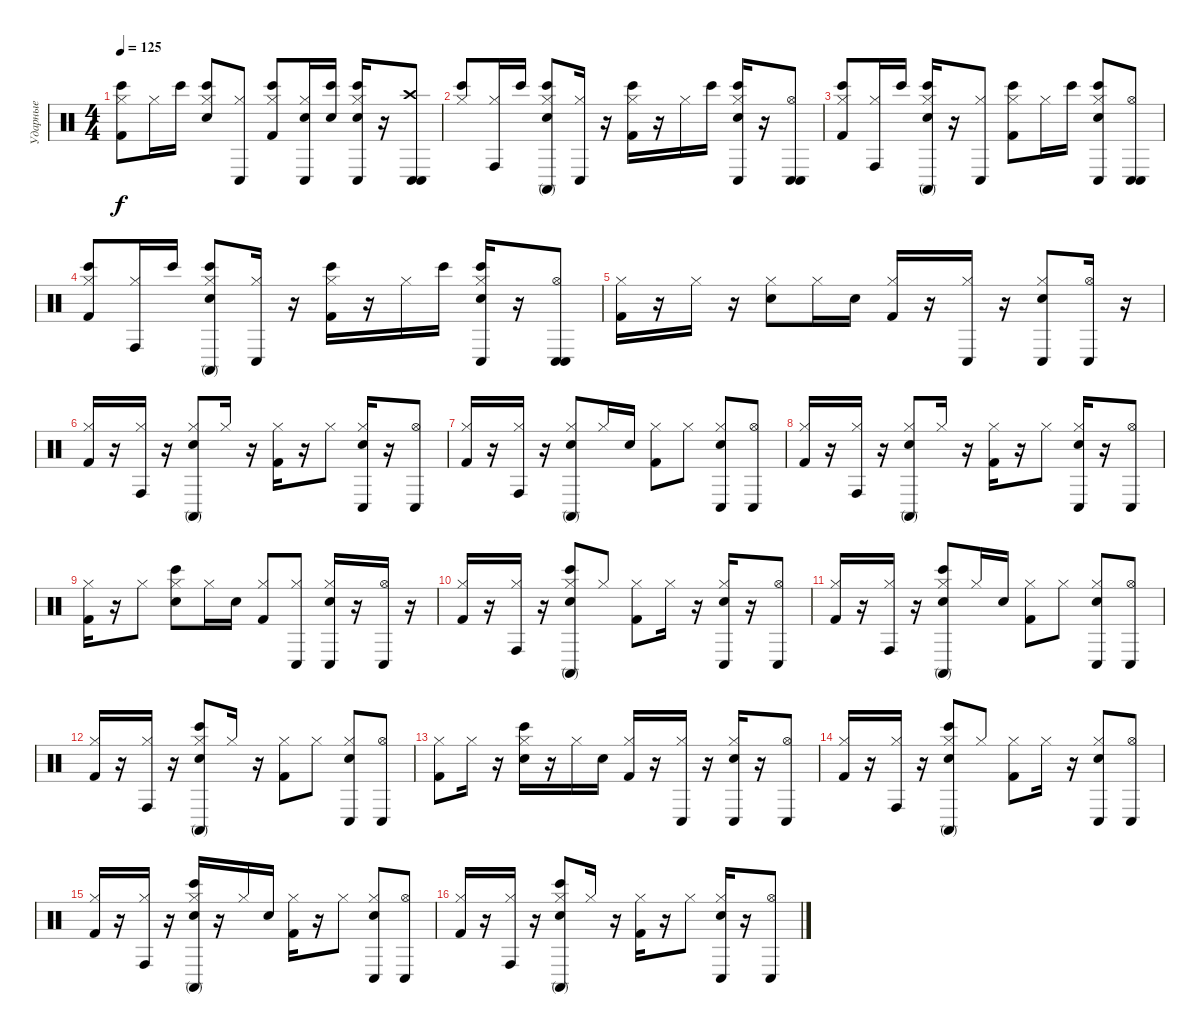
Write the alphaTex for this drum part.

\track ("Ударные" "Ударные") {instrument percussion}
\staff {score}
\articulation defaults
\ts (4 4)
\tempo 125
\clef neutral
\ks c
("Hi-Hat (closed)" "Bongo High (hit)" "Kick (hit) 2").8{dy f} "Hi-Hat (closed)".16 "Bongo High (hit)".16 ("Hi-Hat (closed)" "Bongo High (hit)" "Electric Snare (hit)").8 ("Hi-Hat (closed)" "Conga low (hit)").8 ("Hi-Hat (closed)" "Bongo High (hit)" "Kick (hit) 2").8 ("Hi-Hat (closed)" "Conga low (hit)" "Electric Snare (hit)").16 ("Bongo High (hit)" "Electric Snare (hit)").16 ("Hi-Hat (closed)" "Bongo High (hit)" "Conga low (hit)" "Electric Snare (hit)").16 r.16 ("Crash high (hit)" "Conga low (hit)" "Conga low (hit)").8 |
("Hi-Hat (closed)" "Bongo High (hit)").8 ("Hi-Hat (closed)" "Conga high (hit)").16 "Bongo High (hit)".16 ("Hi-Hat (closed)" "Bongo High (hit)" "Conga high (mute)" "Electric Snare (hit)").8 ("Hi-Hat (closed)" "Conga low (hit)").16 r.16 ("Hi-Hat (closed)" "Bongo High (hit)" "Kick (hit) 2").16 r.16 "Hi-Hat (closed)".16 "Bongo High (hit)".16 ("Hi-Hat (closed)" "Bongo High (hit)" "Conga low (hit)" "Electric Snare (hit)").16 r.16 ("Hi-Hat (open)" "Conga low (hit)" "Conga low (hit)").8 |
("Hi-Hat (closed)" "Bongo High (hit)" "Kick (hit) 2").8 ("Hi-Hat (closed)" "Conga high (hit)").16 "Bongo High (hit)".16 ("Hi-Hat (closed)" "Bongo High (hit)" "Conga high (mute)" "Electric Snare (hit)").16 r.16 ("Hi-Hat (closed)" "Conga low (hit)").8 ("Hi-Hat (closed)" "Bongo High (hit)" "Kick (hit) 2").8 "Hi-Hat (closed)".16 "Bongo High (hit)".16 ("Hi-Hat (closed)" "Bongo High (hit)" "Conga low (hit)" "Electric Snare (hit)").8 ("Hi-Hat (open)" "Conga low (hit)" "Conga low (hit)").8 |
("Hi-Hat (closed)" "Bongo High (hit)" "Kick (hit) 2").8 ("Hi-Hat (closed)" "Conga high (hit)").16 "Bongo High (hit)".16 ("Hi-Hat (closed)" "Bongo High (hit)" "Conga high (mute)" "Electric Snare (hit)").8 ("Hi-Hat (closed)" "Conga low (hit)").16 r.16 ("Hi-Hat (closed)" "Bongo High (hit)" "Kick (hit) 2").16 r.16 "Hi-Hat (closed)".16 "Bongo High (hit)".16 ("Hi-Hat (closed)" "Bongo High (hit)" "Conga low (hit)" "Electric Snare (hit)").16 r.16 ("Hi-Hat (open)" "Conga low (hit)" "Conga low (hit)").8 |
("Hi-Hat (closed)" "Kick (hit) 2").16 r.16 "Hi-Hat (closed)".16 r.16 ("Hi-Hat (closed)" "Electric Snare (hit)").8 "Hi-Hat (closed)".16 "Electric Snare (hit)".16 ("Hi-Hat (closed)" "Kick (hit) 2").16 r.16 ("Hi-Hat (closed)" "Conga low (hit)").16 r.16 ("Hi-Hat (closed)" "Conga low (hit)" "Electric Snare (hit)").8 ("Hi-Hat (open)" "Conga low (hit)").16 r.16 |
("Hi-Hat (closed)" "Kick (hit) 2").16 r.16 ("Hi-Hat (closed)" "Conga high (hit)").16 r.16 ("Hi-Hat (closed)" "Conga high (mute)" "Electric Snare (hit)").8 "Hi-Hat (closed)".16 r.16 ("Hi-Hat (closed)" "Kick (hit) 2").16 r.16 "Hi-Hat (closed)".8 ("Hi-Hat (closed)" "Conga low (hit)" "Electric Snare (hit)").16 r.16 ("Hi-Hat (open)" "Conga low (hit)").8 |
("Hi-Hat (closed)" "Kick (hit) 2").16 r.16 ("Hi-Hat (closed)" "Conga high (hit)").16 r.16 ("Hi-Hat (closed)" "Conga high (mute)" "Electric Snare (hit)").8 "Hi-Hat (closed)".16 "Electric Snare (hit)".16 ("Hi-Hat (closed)" "Kick (hit) 2").8 "Hi-Hat (closed)".8 ("Hi-Hat (closed)" "Conga low (hit)" "Electric Snare (hit)").8 ("Hi-Hat (open)" "Conga low (hit)").8 |
("Hi-Hat (closed)" "Kick (hit) 2").16 r.16 ("Hi-Hat (closed)" "Conga high (hit)").16 r.16 ("Hi-Hat (closed)" "Conga high (mute)" "Electric Snare (hit)").8 "Hi-Hat (closed)".16 r.16 ("Hi-Hat (closed)" "Kick (hit) 2").16 r.16 "Hi-Hat (closed)".8 ("Hi-Hat (closed)" "Conga low (hit)" "Electric Snare (hit)").16 r.16 ("Hi-Hat (open)" "Conga low (hit)").8 |
("Hi-Hat (closed)" "Kick (hit) 2").16 r.16 "Hi-Hat (closed)".8 ("Hi-Hat (closed)" "Bongo High (hit)" "Electric Snare (hit)").8 "Hi-Hat (closed)".16 "Electric Snare (hit)".16 ("Hi-Hat (closed)" "Kick (hit) 2").8 ("Hi-Hat (closed)" "Conga low (hit)").8 ("Hi-Hat (closed)" "Conga low (hit)" "Electric Snare (hit)").16 r.16 ("Hi-Hat (open)" "Conga low (hit)").16 r.16 |
("Hi-Hat (closed)" "Kick (hit) 2").16 r.16 ("Hi-Hat (closed)" "Conga high (hit)").16 r.16 ("Hi-Hat (closed)" "Bongo High (hit)" "Conga high (mute)" "Electric Snare (hit)").8 "Hi-Hat (closed)".8 ("Hi-Hat (closed)" "Kick (hit) 2").8 "Hi-Hat (closed)".16 r.16 ("Hi-Hat (closed)" "Conga low (hit)" "Electric Snare (hit)").16 r.16 ("Hi-Hat (open)" "Conga low (hit)").8 |
("Hi-Hat (closed)" "Kick (hit) 2").16 r.16 ("Hi-Hat (closed)" "Conga high (hit)").16 r.16 ("Hi-Hat (closed)" "Bongo High (hit)" "Conga high (mute)" "Electric Snare (hit)").8 "Hi-Hat (closed)".16 "Electric Snare (hit)".16 ("Hi-Hat (closed)" "Kick (hit) 2").8 "Hi-Hat (closed)".8 ("Hi-Hat (closed)" "Conga low (hit)" "Electric Snare (hit)").8 ("Hi-Hat (open)" "Conga low (hit)").8 |
("Hi-Hat (closed)" "Kick (hit) 2").16 r.16 ("Hi-Hat (closed)" "Conga high (hit)").16 r.16 ("Hi-Hat (closed)" "Bongo High (hit)" "Conga high (mute)" "Electric Snare (hit)").8 "Hi-Hat (closed)".16 r.16 ("Hi-Hat (closed)" "Kick (hit) 2").8 "Hi-Hat (closed)".8 ("Hi-Hat (closed)" "Conga low (hit)" "Electric Snare (hit)").8 ("Hi-Hat (open)" "Conga low (hit)").8 |
("Hi-Hat (closed)" "Kick (hit) 2").8 "Hi-Hat (closed)".16 r.16 ("Hi-Hat (closed)" "Bongo High (hit)" "Electric Snare (hit)").16 r.16 "Hi-Hat (closed)".16 "Electric Snare (hit)".16 ("Hi-Hat (closed)" "Kick (hit) 2").16 r.16 ("Hi-Hat (closed)" "Conga low (hit)").16 r.16 ("Hi-Hat (closed)" "Conga low (hit)" "Electric Snare (hit)").16 r.16 ("Hi-Hat (open)" "Conga low (hit)").8 |
("Hi-Hat (closed)" "Kick (hit) 2").16 r.16 ("Hi-Hat (closed)" "Conga high (hit)").16 r.16 ("Hi-Hat (closed)" "Bongo High (hit)" "Conga high (mute)" "Electric Snare (hit)").8 "Hi-Hat (closed)".8 ("Hi-Hat (closed)" "Kick (hit) 2").8 "Hi-Hat (closed)".16 r.16 ("Hi-Hat (closed)" "Conga low (hit)" "Electric Snare (hit)").8 ("Hi-Hat (open)" "Conga low (hit)").8 |
("Hi-Hat (closed)" "Kick (hit) 2").16 r.16 ("Hi-Hat (closed)" "Conga high (hit)").16 r.16 ("Hi-Hat (closed)" "Bongo High (hit)" "Conga high (mute)" "Electric Snare (hit)").16 r.16 "Hi-Hat (closed)".16 "Electric Snare (hit)".16 ("Hi-Hat (closed)" "Kick (hit) 2").16 r.16 "Hi-Hat (closed)".8 ("Hi-Hat (closed)" "Conga low (hit)" "Electric Snare (hit)").8 ("Hi-Hat (open)" "Conga low (hit)").8 |
("Hi-Hat (closed)" "Kick (hit) 2").16 r.16 ("Hi-Hat (closed)" "Conga high (hit)").16 r.16 ("Hi-Hat (closed)" "Bongo High (hit)" "Conga high (mute)" "Electric Snare (hit)").8 "Hi-Hat (closed)".16 r.16 ("Hi-Hat (closed)" "Kick (hit) 2").16 r.16 "Hi-Hat (closed)".8 ("Hi-Hat (closed)" "Conga low (hit)" "Electric Snare (hit)").16 r.16 ("Hi-Hat (open)" "Conga low (hit)").8
